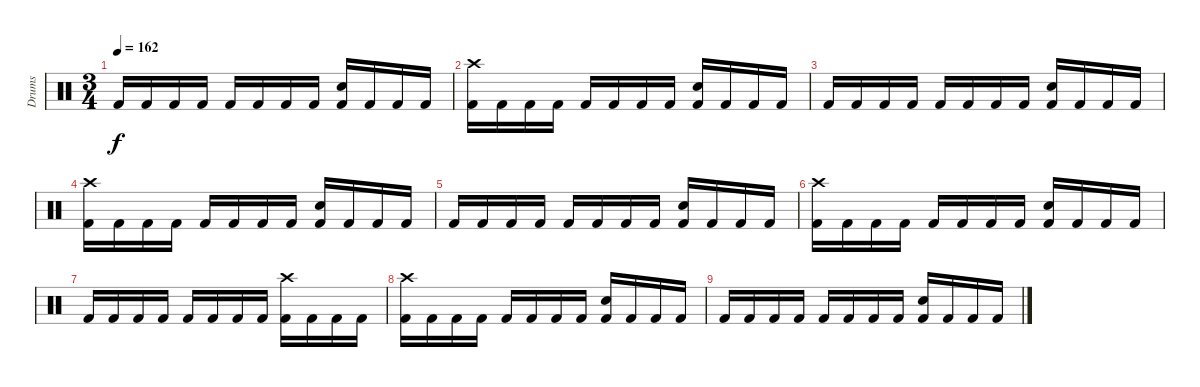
\track ("Drums" "Drums") {instrument percussion}
\staff {score}
\articulation defaults
\ts (3 4)
\tempo 162
\clef neutral
\ks c "Kick (hit) 2".16{dy f} "Kick (hit) 2".16 "Kick (hit) 2".16 "Kick (hit) 2".16 "Kick (hit) 2".16 "Kick (hit) 2".16 "Kick (hit) 2".16 "Kick (hit) 2".16
("Snare (hit) 2" "Kick (hit) 2").16 "Kick (hit) 2".16 "Kick (hit) 2".16 "Kick (hit) 2".16 |
("Crash high (hit)" "Kick (hit) 2").16 "Kick (hit) 2".16 "Kick (hit) 2".16 "Kick (hit) 2".16 "Kick (hit) 2".16 "Kick (hit) 2".16 "Kick (hit) 2".16 "Kick (hit) 2".16 ("Snare (hit) 2" "Kick (hit) 2").16 "Kick (hit) 2".16 "Kick (hit) 2".16 "Kick (hit) 2".16 |
"Kick (hit) 2".16 "Kick (hit) 2".16 "Kick (hit) 2".16 "Kick (hit) 2".16 "Kick (hit) 2".16 "Kick (hit) 2".16 "Kick (hit) 2".16 "Kick (hit) 2".16 ("Snare (hit) 2" "Kick (hit) 2").16 "Kick (hit) 2".16 "Kick (hit) 2".16 "Kick (hit) 2".16 |
("Crash high (hit)" "Kick (hit) 2").16 "Kick (hit) 2".16 "Kick (hit) 2".16 "Kick (hit) 2".16 "Kick (hit) 2".16 "Kick (hit) 2".16 "Kick (hit) 2".16 "Kick (hit) 2".16 ("Snare (hit) 2" "Kick (hit) 2").16 "Kick (hit) 2".16 "Kick (hit) 2".16 "Kick (hit) 2".16 |
"Kick (hit) 2".16 "Kick (hit) 2".16 "Kick (hit) 2".16 "Kick (hit) 2".16 "Kick (hit) 2".16 "Kick (hit) 2".16 "Kick (hit) 2".16 "Kick (hit) 2".16 ("Snare (hit) 2" "Kick (hit) 2").16 "Kick (hit) 2".16 "Kick (hit) 2".16 "Kick (hit) 2".16 |
("Crash high (hit)" "Kick (hit) 2").16 "Kick (hit) 2".16 "Kick (hit) 2".16 "Kick (hit) 2".16 "Kick (hit) 2".16 "Kick (hit) 2".16 "Kick (hit) 2".16 "Kick (hit) 2".16 ("Snare (hit) 2" "Kick (hit) 2").16 "Kick (hit) 2".16 "Kick (hit) 2".16 "Kick (hit) 2".16 |
"Kick (hit) 2".16 "Kick (hit) 2".16 "Kick (hit) 2".16 "Kick (hit) 2".16 "Kick (hit) 2".16 "Kick (hit) 2".16 "Kick (hit) 2".16 "Kick (hit) 2".16 ("Crash high (hit)" "Kick (hit) 2").16 "Kick (hit) 2".16 "Kick (hit) 2".16 "Kick (hit) 2".16 |
("Crash high (hit)" "Kick (hit) 2").16 "Kick (hit) 2".16 "Kick (hit) 2".16 "Kick (hit) 2".16 "Kick (hit) 2".16 "Kick (hit) 2".16 "Kick (hit) 2".16 "Kick (hit) 2".16 ("Snare (hit) 2" "Kick (hit) 2").16 "Kick (hit) 2".16 "Kick (hit) 2".16 "Kick (hit) 2".16 |
"Kick (hit) 2".16 "Kick (hit) 2".16 "Kick (hit) 2".16 "Kick (hit) 2".16 "Kick (hit) 2".16 "Kick (hit) 2".16 "Kick (hit) 2".16 "Kick (hit) 2".16 ("Snare (hit) 2" "Kick (hit) 2").16 "Kick (hit) 2".16 "Kick (hit) 2".16 "Kick (hit) 2".16
